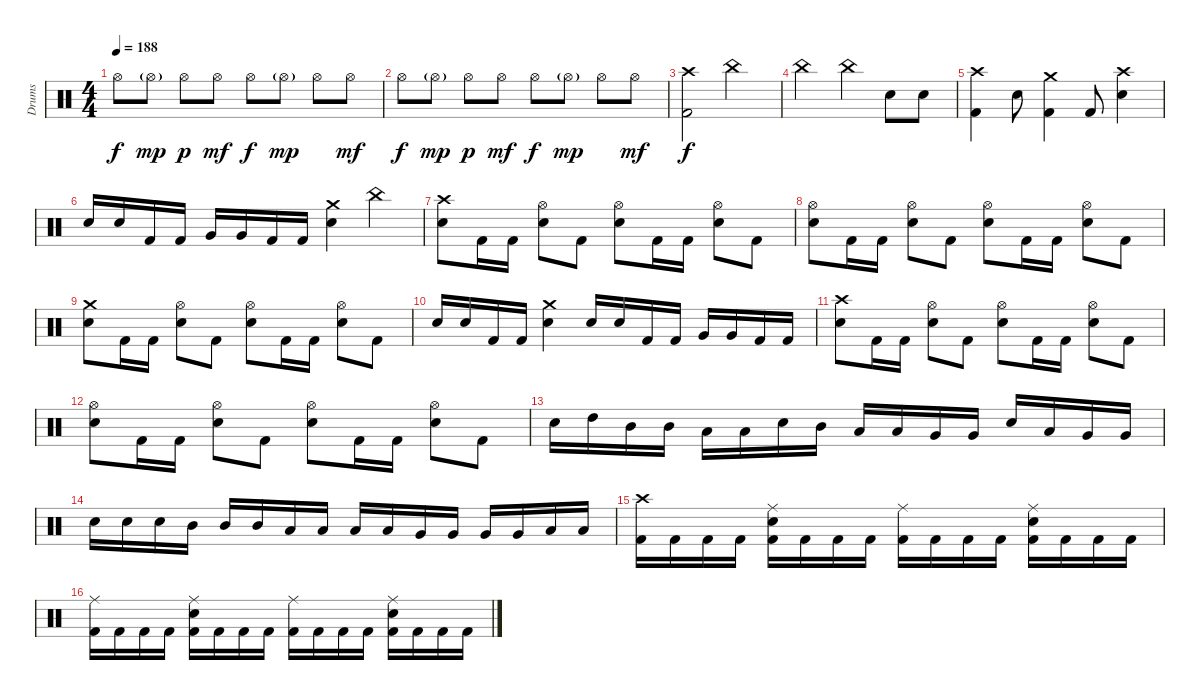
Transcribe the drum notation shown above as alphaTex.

\track ("Drums" "Drums") {instrument percussion}
\staff {score}
\articulation defaults
\ts (4 4)
\tempo 188
\clef neutral
\ks c "Hi-Hat (open)".8{dy f} "Hi-Hat (open)"{g}.8{dy mp} "Hi-Hat (open)".8{dy p} "Hi-Hat (open)".8{dy mf} "Hi-Hat (open)".8{dy f} "Hi-Hat (open)"{g}.8{dy mp} "Hi-Hat (open)".8 "Hi-Hat (open)".8{dy mf}
|
"Hi-Hat (open)".8{dy f} "Hi-Hat (open)"{g}.8{dy mp} "Hi-Hat (open)".8{dy p} "Hi-Hat (open)".8{dy mf} "Hi-Hat (open)".8{dy f} "Hi-Hat (open)"{g}.8{dy mp} "Hi-Hat (open)".8 "Hi-Hat (open)".8{dy mf} |
("Crash high (hit)" "Kick (hit) 2").2{dy f} "China (hit)".2 |
"China (hit)".2 "China (hit)".4 "Electric Snare (hit)".8 "Electric Snare (hit)".8 |
("Crash high (hit)" "Kick (hit) 2").4 "Electric Snare (hit)".8 ("Crash medium (hit)" "Kick (hit) 2").4 "Kick (hit) 2".8 ("Crash high (hit)" "Electric Snare (hit)").4 |
"Electric Snare (hit)".16 "Electric Snare (hit)".16 "Kick (hit) 2".16 "Kick (hit) 2".16 "Very Low Tom (hit)".16 "Very Low Tom (hit)".16 "Kick (hit) 2".16 "Kick (hit) 2".16 ("Crash medium (hit)" "Electric Snare (hit)").4 "China (hit)".4 |
("Crash high (hit)" "Electric Snare (hit)").8 "Kick (hit) 2".16 "Kick (hit) 2".16 ("Hi-Hat (open)" "Electric Snare (hit)").8 "Kick (hit) 2".8 ("Hi-Hat (open)" "Electric Snare (hit)").8 "Kick (hit) 2".16 "Kick (hit) 2".16 ("Hi-Hat (open)" "Electric Snare (hit)").8 "Kick (hit) 2".8 |
("Hi-Hat (open)" "Electric Snare (hit)").8 "Kick (hit) 2".16 "Kick (hit) 2".16 ("Hi-Hat (open)" "Electric Snare (hit)").8 "Kick (hit) 2".8 ("Hi-Hat (open)" "Electric Snare (hit)").8 "Kick (hit) 2".16 "Kick (hit) 2".16 ("Hi-Hat (open)" "Electric Snare (hit)").8 "Kick (hit) 2".8 |
("Crash medium (hit)" "Electric Snare (hit)").8 "Kick (hit) 2".16 "Kick (hit) 2".16 ("Hi-Hat (open)" "Electric Snare (hit)").8 "Kick (hit) 2".8 ("Hi-Hat (open)" "Electric Snare (hit)").8 "Kick (hit) 2".16 "Kick (hit) 2".16 ("Hi-Hat (open)" "Electric Snare (hit)").8 "Kick (hit) 2".8 |
"Electric Snare (hit)".16 "Electric Snare (hit)".16 "Kick (hit) 2".16 "Kick (hit) 2".16 ("Crash medium (hit)" "Electric Snare (hit)").4 "Electric Snare (hit)".16 "Electric Snare (hit)".16 "Kick (hit) 2".16 "Kick (hit) 2".16 "Very Low Tom (hit)".16 "Very Low Tom (hit)".16 "Kick (hit) 2".16 "Kick (hit) 2".16 |
("Crash high (hit)" "Electric Snare (hit)").8 "Kick (hit) 2".16 "Kick (hit) 2".16 ("Hi-Hat (open)" "Electric Snare (hit)").8 "Kick (hit) 2".8 ("Hi-Hat (open)" "Electric Snare (hit)").8 "Kick (hit) 2".16 "Kick (hit) 2".16 ("Hi-Hat (open)" "Electric Snare (hit)").8 "Kick (hit) 2".8 |
("Hi-Hat (open)" "Electric Snare (hit)").8 "Kick (hit) 2".16 "Kick (hit) 2".16 ("Hi-Hat (open)" "Electric Snare (hit)").8 "Kick (hit) 2".8 ("Hi-Hat (open)" "Electric Snare (hit)").8 "Kick (hit) 2".16 "Kick (hit) 2".16 ("Hi-Hat (open)" "Electric Snare (hit)").8 "Kick (hit) 2".8 |
"Electric Snare (hit)".16 "High Tom (hit)".16 "Mid Tom (hit)".16 "Mid Tom (hit)".16 "Low Tom (hit)".16 "Low Tom (hit)".16 "Electric Snare (hit)".16 "Mid Tom (hit)".16 "Low Tom (hit)".16 "Low Tom (hit)".16 "Very Low Tom (hit)".16 "Very Low Tom (hit)".16 "Electric Snare (hit)".16 "Low Tom (hit)".16 "Very Low Tom (hit)".16 "Very Low Tom (hit)".16 |
"Electric Snare (hit)".16 "Electric Snare (hit)".16 "Electric Snare (hit)".16 "Mid Tom (hit)".16 "Mid Tom (hit)".16 "Mid Tom (hit)".16 "Low Tom (hit)".16 "Low Tom (hit)".16 "Low Tom (hit)".16 "Low Tom (hit)".16 "Very Low Tom (hit)".16 "Very Low Tom (hit)".16 "Very Low Tom (hit)".16 "Very Low Tom (hit)".16 "Low Floor Tom (hit)".16 "Low Floor Tom (hit)".16 |
("Crash high (hit)" "Kick (hit) 2").16 "Kick (hit) 2".16 "Kick (hit) 2".16 "Kick (hit) 2".16 ("Ride (middle)" "Electric Snare (hit)" "Kick (hit) 2").16 "Kick (hit) 2".16 "Kick (hit) 2".16 "Kick (hit) 2".16 ("Ride (middle)" "Kick (hit) 2").16 "Kick (hit) 2".16 "Kick (hit) 2".16 "Kick (hit) 2".16 ("Ride (middle)" "Electric Snare (hit)" "Kick (hit) 2").16 "Kick (hit) 2".16 "Kick (hit) 2".16 "Kick (hit) 2".16 |
("Ride (middle)" "Kick (hit) 2").16 "Kick (hit) 2".16 "Kick (hit) 2".16 "Kick (hit) 2".16 ("Ride (middle)" "Electric Snare (hit)" "Kick (hit) 2").16 "Kick (hit) 2".16 "Kick (hit) 2".16 "Kick (hit) 2".16 ("Ride (middle)" "Kick (hit) 2").16 "Kick (hit) 2".16 "Kick (hit) 2".16 "Kick (hit) 2".16 ("Ride (middle)" "Electric Snare (hit)" "Kick (hit) 2").16 "Kick (hit) 2".16 "Kick (hit) 2".16 "Kick (hit) 2".16
